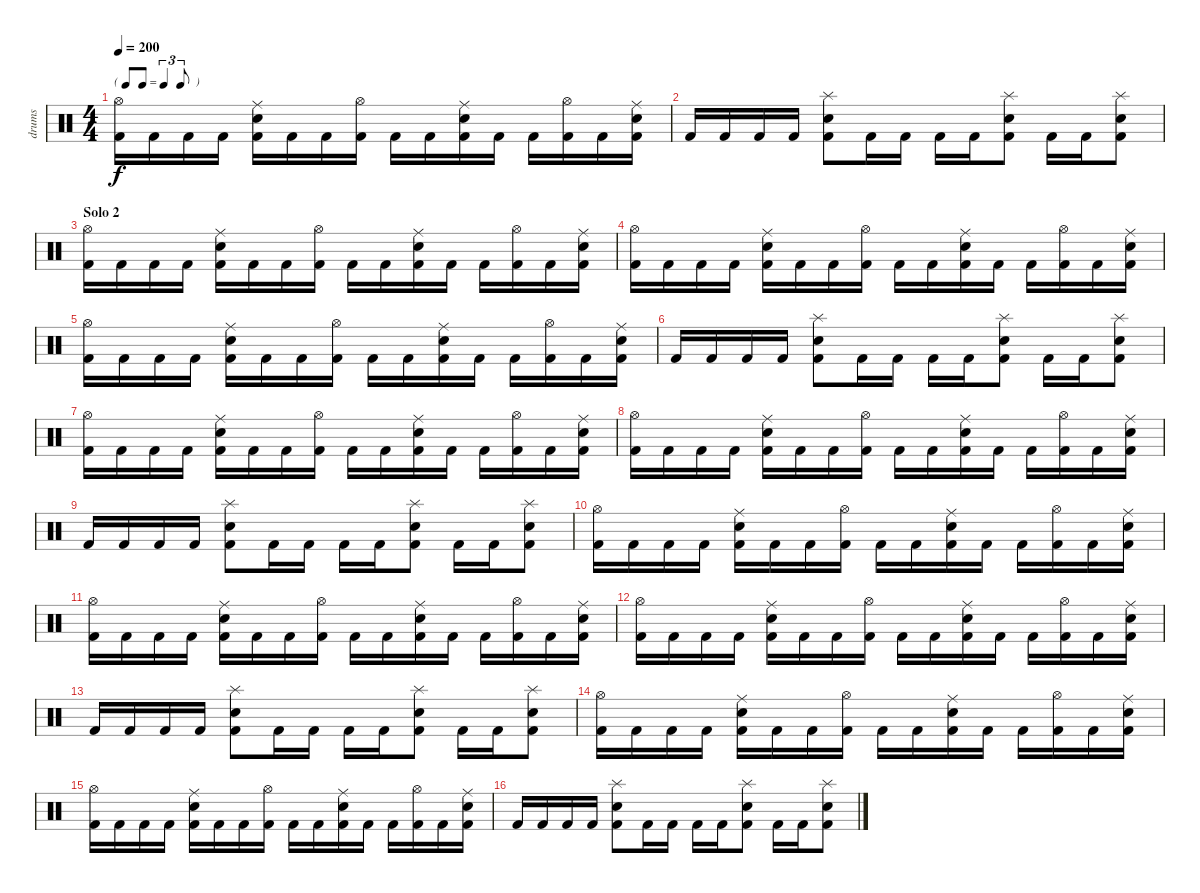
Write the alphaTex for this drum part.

\track ("drums" "drums") {instrument percussion}
\staff {score}
\articulation defaults
\ts (4 4)
\tf triplet8th
\tempo 200
\clef neutral
\ks c
("Kick (hit) 2" "Hi-Hat (open)").16{dy f} "Kick (hit) 2".16 "Kick (hit) 2".16 "Kick (hit) 2".16 ("Kick (hit) 2" "Electric Snare (hit)" "Ride (middle)").16 "Kick (hit) 2".16 "Kick (hit) 2".16 ("Kick (hit) 2" "Hi-Hat (open)").16 "Kick (hit) 2".16 "Kick (hit) 2".16 ("Kick (hit) 2" "Electric Snare (hit)" "Ride (middle)").16 "Kick (hit) 2".16 "Kick (hit) 2".16 ("Kick (hit) 2" "Hi-Hat (open)").16 "Kick (hit) 2".16 ("Kick (hit) 2" "Electric Snare (hit)" "Ride (middle)").16 |
"Kick (hit) 2".16 "Kick (hit) 2".16 "Kick (hit) 2".16 "Kick (hit) 2".16 ("Kick (hit) 2" "Electric Snare (hit)" "Splash (hit)").8 "Kick (hit) 2".16 "Kick (hit) 2".16 "Kick (hit) 2".16 "Kick (hit) 2".16 ("Kick (hit) 2" "Electric Snare (hit)" "Splash (hit)").8 "Kick (hit) 2".16 "Kick (hit) 2".16 ("Kick (hit) 2" "Electric Snare (hit)" "Splash (hit)").8 |
\section ("" "Solo 2")
("Kick (hit) 2" "Hi-Hat (open)").16 "Kick (hit) 2".16 "Kick (hit) 2".16 "Kick (hit) 2".16 ("Kick (hit) 2" "Electric Snare (hit)" "Ride (middle)").16 "Kick (hit) 2".16 "Kick (hit) 2".16 ("Kick (hit) 2" "Hi-Hat (open)").16 "Kick (hit) 2".16 "Kick (hit) 2".16 ("Kick (hit) 2" "Electric Snare (hit)" "Ride (middle)").16 "Kick (hit) 2".16 "Kick (hit) 2".16 ("Kick (hit) 2" "Hi-Hat (open)").16 "Kick (hit) 2".16 ("Kick (hit) 2" "Electric Snare (hit)" "Ride (middle)").16 |
("Kick (hit) 2" "Hi-Hat (open)").16 "Kick (hit) 2".16 "Kick (hit) 2".16 "Kick (hit) 2".16 ("Kick (hit) 2" "Electric Snare (hit)" "Ride (middle)").16 "Kick (hit) 2".16 "Kick (hit) 2".16 ("Kick (hit) 2" "Hi-Hat (open)").16 "Kick (hit) 2".16 "Kick (hit) 2".16 ("Kick (hit) 2" "Electric Snare (hit)" "Ride (middle)").16 "Kick (hit) 2".16 "Kick (hit) 2".16 ("Kick (hit) 2" "Hi-Hat (open)").16 "Kick (hit) 2".16 ("Kick (hit) 2" "Electric Snare (hit)" "Ride (middle)").16 |
("Kick (hit) 2" "Hi-Hat (open)").16 "Kick (hit) 2".16 "Kick (hit) 2".16 "Kick (hit) 2".16 ("Kick (hit) 2" "Electric Snare (hit)" "Ride (middle)").16 "Kick (hit) 2".16 "Kick (hit) 2".16 ("Kick (hit) 2" "Hi-Hat (open)").16 "Kick (hit) 2".16 "Kick (hit) 2".16 ("Kick (hit) 2" "Electric Snare (hit)" "Ride (middle)").16 "Kick (hit) 2".16 "Kick (hit) 2".16 ("Kick (hit) 2" "Hi-Hat (open)").16 "Kick (hit) 2".16 ("Kick (hit) 2" "Electric Snare (hit)" "Ride (middle)").16 |
"Kick (hit) 2".16 "Kick (hit) 2".16 "Kick (hit) 2".16 "Kick (hit) 2".16 ("Kick (hit) 2" "Electric Snare (hit)" "Splash (hit)").8 "Kick (hit) 2".16 "Kick (hit) 2".16 "Kick (hit) 2".16 "Kick (hit) 2".16 ("Kick (hit) 2" "Electric Snare (hit)" "Splash (hit)").8 "Kick (hit) 2".16 "Kick (hit) 2".16 ("Kick (hit) 2" "Electric Snare (hit)" "Splash (hit)").8 |
("Kick (hit) 2" "Hi-Hat (open)").16 "Kick (hit) 2".16 "Kick (hit) 2".16 "Kick (hit) 2".16 ("Kick (hit) 2" "Electric Snare (hit)" "Ride (middle)").16 "Kick (hit) 2".16 "Kick (hit) 2".16 ("Kick (hit) 2" "Hi-Hat (open)").16 "Kick (hit) 2".16 "Kick (hit) 2".16 ("Kick (hit) 2" "Electric Snare (hit)" "Ride (middle)").16 "Kick (hit) 2".16 "Kick (hit) 2".16 ("Kick (hit) 2" "Hi-Hat (open)").16 "Kick (hit) 2".16 ("Kick (hit) 2" "Electric Snare (hit)" "Ride (middle)").16 |
("Kick (hit) 2" "Hi-Hat (open)").16 "Kick (hit) 2".16 "Kick (hit) 2".16 "Kick (hit) 2".16 ("Kick (hit) 2" "Electric Snare (hit)" "Ride (middle)").16 "Kick (hit) 2".16 "Kick (hit) 2".16 ("Kick (hit) 2" "Hi-Hat (open)").16 "Kick (hit) 2".16 "Kick (hit) 2".16 ("Kick (hit) 2" "Electric Snare (hit)" "Ride (middle)").16 "Kick (hit) 2".16 "Kick (hit) 2".16 ("Kick (hit) 2" "Hi-Hat (open)").16 "Kick (hit) 2".16 ("Kick (hit) 2" "Electric Snare (hit)" "Ride (middle)").16 |
"Kick (hit) 2".16 "Kick (hit) 2".16 "Kick (hit) 2".16 "Kick (hit) 2".16 ("Kick (hit) 2" "Electric Snare (hit)" "Splash (hit)").8 "Kick (hit) 2".16 "Kick (hit) 2".16 "Kick (hit) 2".16 "Kick (hit) 2".16 ("Kick (hit) 2" "Electric Snare (hit)" "Splash (hit)").8 "Kick (hit) 2".16 "Kick (hit) 2".16 ("Kick (hit) 2" "Electric Snare (hit)" "Splash (hit)").8 |
("Kick (hit) 2" "Hi-Hat (open)").16 "Kick (hit) 2".16 "Kick (hit) 2".16 "Kick (hit) 2".16 ("Kick (hit) 2" "Electric Snare (hit)" "Ride (middle)").16 "Kick (hit) 2".16 "Kick (hit) 2".16 ("Kick (hit) 2" "Hi-Hat (open)").16 "Kick (hit) 2".16 "Kick (hit) 2".16 ("Kick (hit) 2" "Electric Snare (hit)" "Ride (middle)").16 "Kick (hit) 2".16 "Kick (hit) 2".16 ("Kick (hit) 2" "Hi-Hat (open)").16 "Kick (hit) 2".16 ("Kick (hit) 2" "Electric Snare (hit)" "Ride (middle)").16 |
("Kick (hit) 2" "Hi-Hat (open)").16 "Kick (hit) 2".16 "Kick (hit) 2".16 "Kick (hit) 2".16 ("Kick (hit) 2" "Electric Snare (hit)" "Ride (middle)").16 "Kick (hit) 2".16 "Kick (hit) 2".16 ("Kick (hit) 2" "Hi-Hat (open)").16 "Kick (hit) 2".16 "Kick (hit) 2".16 ("Kick (hit) 2" "Electric Snare (hit)" "Ride (middle)").16 "Kick (hit) 2".16 "Kick (hit) 2".16 ("Kick (hit) 2" "Hi-Hat (open)").16 "Kick (hit) 2".16 ("Kick (hit) 2" "Electric Snare (hit)" "Ride (middle)").16 |
("Kick (hit) 2" "Hi-Hat (open)").16 "Kick (hit) 2".16 "Kick (hit) 2".16 "Kick (hit) 2".16 ("Kick (hit) 2" "Electric Snare (hit)" "Ride (middle)").16 "Kick (hit) 2".16 "Kick (hit) 2".16 ("Kick (hit) 2" "Hi-Hat (open)").16 "Kick (hit) 2".16 "Kick (hit) 2".16 ("Kick (hit) 2" "Electric Snare (hit)" "Ride (middle)").16 "Kick (hit) 2".16 "Kick (hit) 2".16 ("Kick (hit) 2" "Hi-Hat (open)").16 "Kick (hit) 2".16 ("Kick (hit) 2" "Electric Snare (hit)" "Ride (middle)").16 |
"Kick (hit) 2".16 "Kick (hit) 2".16 "Kick (hit) 2".16 "Kick (hit) 2".16 ("Kick (hit) 2" "Electric Snare (hit)" "Splash (hit)").8 "Kick (hit) 2".16 "Kick (hit) 2".16 "Kick (hit) 2".16 "Kick (hit) 2".16 ("Kick (hit) 2" "Electric Snare (hit)" "Splash (hit)").8 "Kick (hit) 2".16 "Kick (hit) 2".16 ("Kick (hit) 2" "Electric Snare (hit)" "Splash (hit)").8 |
("Kick (hit) 2" "Hi-Hat (open)").16 "Kick (hit) 2".16 "Kick (hit) 2".16 "Kick (hit) 2".16 ("Kick (hit) 2" "Electric Snare (hit)" "Ride (middle)").16 "Kick (hit) 2".16 "Kick (hit) 2".16 ("Kick (hit) 2" "Hi-Hat (open)").16 "Kick (hit) 2".16 "Kick (hit) 2".16 ("Kick (hit) 2" "Electric Snare (hit)" "Ride (middle)").16 "Kick (hit) 2".16 "Kick (hit) 2".16 ("Kick (hit) 2" "Hi-Hat (open)").16 "Kick (hit) 2".16 ("Kick (hit) 2" "Electric Snare (hit)" "Ride (middle)").16 |
("Kick (hit) 2" "Hi-Hat (open)").16 "Kick (hit) 2".16 "Kick (hit) 2".16 "Kick (hit) 2".16 ("Kick (hit) 2" "Electric Snare (hit)" "Ride (middle)").16 "Kick (hit) 2".16 "Kick (hit) 2".16 ("Kick (hit) 2" "Hi-Hat (open)").16 "Kick (hit) 2".16 "Kick (hit) 2".16 ("Kick (hit) 2" "Electric Snare (hit)" "Ride (middle)").16 "Kick (hit) 2".16 "Kick (hit) 2".16 ("Kick (hit) 2" "Hi-Hat (open)").16 "Kick (hit) 2".16 ("Kick (hit) 2" "Electric Snare (hit)" "Ride (middle)").16 |
"Kick (hit) 2".16 "Kick (hit) 2".16 "Kick (hit) 2".16 "Kick (hit) 2".16 ("Kick (hit) 2" "Electric Snare (hit)" "Splash (hit)").8 "Kick (hit) 2".16 "Kick (hit) 2".16 "Kick (hit) 2".16 "Kick (hit) 2".16 ("Kick (hit) 2" "Electric Snare (hit)" "Splash (hit)").8 "Kick (hit) 2".16 "Kick (hit) 2".16 ("Kick (hit) 2" "Electric Snare (hit)" "Splash (hit)").8
